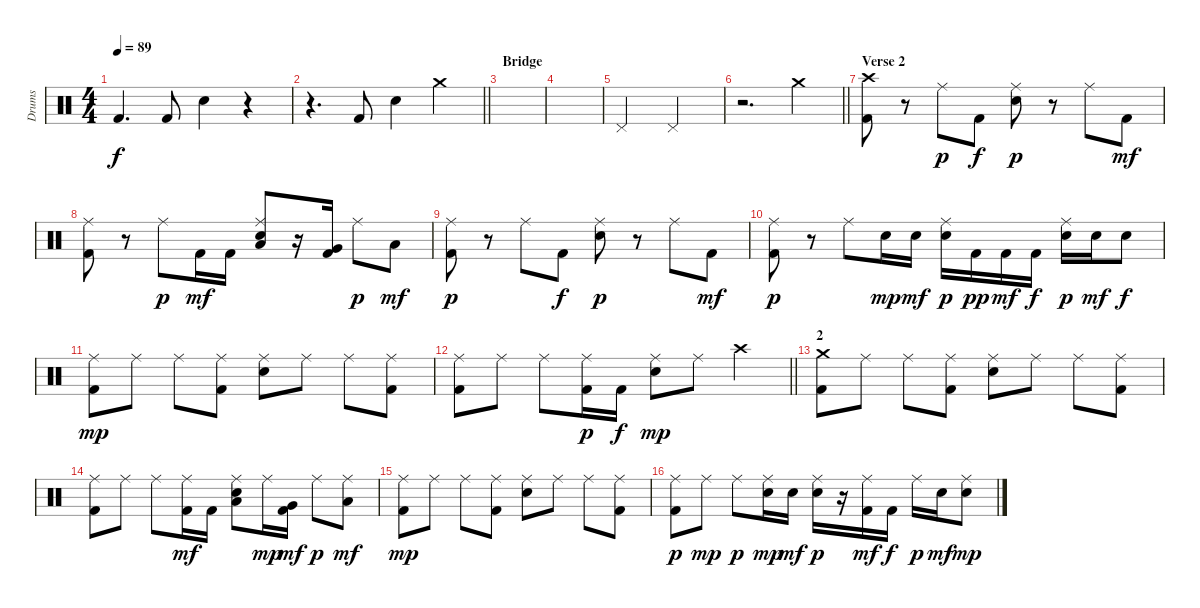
\track ("Drums" "Drums") {instrument percussion}
\staff {score}
\articulation defaults
\ts (4 4)
\tempo 89
\clef neutral
\ks c "Kick (hit) 2".4{d dy f} "Kick (hit) 2".8 "Electric Snare (hit)".4
r.4 |
\barLineRight lightlight
r.4{d} "Kick (hit) 2".8 "Electric Snare (hit)".4 "Crash medium (hit)".4 |
\section ("" "Bridge")
|
|
"Pedal Hi-Hat (hit)".2 "Pedal Hi-Hat (hit)".2 |
\barLineRight lightlight
r.2{d} "Crash medium (hit)".4 |
\section ("" "Verse 2")
("Crash high (hit)" "Kick (hit) 2").8 r.8 "Ride (middle)".8{dy p} "Kick (hit) 2".8{dy f} ("Ride (middle)" "Electric Snare (hit)").8{dy p} r.8 "Ride (middle)".8 "Kick (hit) 2".8{dy mf} |
("Ride (middle)" "Kick (hit) 2").8 r.8 "Ride (middle)".8{dy p} "Kick (hit) 2".16{dy mf} "Kick (hit) 2".16 ("Ride (middle)" "Electric Snare (hit)" "Low Floor Tom (hit)").8 r.16 ("Very Low Tom (hit)" "Kick (hit) 2").16 "Ride (middle)".8{dy p} "Low Floor Tom (hit)".8{dy mf} |
("Ride (middle)" "Kick (hit) 2").8{dy p} r.8 "Ride (middle)".8 "Kick (hit) 2".8{dy f} ("Ride (middle)" "Electric Snare (hit)").8{dy p} r.8 "Ride (middle)".8 "Kick (hit) 2".8{dy mf} |
("Ride (middle)" "Kick (hit) 2").8{dy p} r.8 "Ride (middle)".8 "Electric Snare (hit)".16{dy mp} "Electric Snare (hit)".16{dy mf} ("Ride (middle)" "Electric Snare (hit)").16{dy p} "Kick (hit) 2".16{dy pp} "Kick (hit) 2".16{dy mf} "Kick (hit) 2".16{dy f} ("Ride (middle)" "Electric Snare (hit)").16{dy p} "Electric Snare (hit)".16{dy mf} "Electric Snare (hit)".8{dy f} |
("Ride (middle)" "Kick (hit) 2").8{dy mp} "Ride (middle)".8 "Ride (middle)".8 ("Ride (middle)" "Kick (hit) 2").8 ("Ride (middle)" "Electric Snare (hit)").8 "Ride (middle)".8 "Ride (middle)".8 ("Ride (middle)" "Kick (hit) 2").8 |
\barLineRight lightlight
("Ride (middle)" "Kick (hit) 2").8 "Ride (middle)".8 "Ride (middle)".8 ("Ride (middle)" "Kick (hit) 2").16{dy p} "Kick (hit) 2".16{dy f} ("Ride (middle)" "Electric Snare (hit)").8{dy mp} "Ride (middle)".8 "Crash high (hit)".4 |
\section ("" "2")
("Crash medium (hit)" "Kick (hit) 2").8 "Ride (middle)".8 "Ride (middle)".8 ("Ride (middle)" "Kick (hit) 2").8 ("Ride (middle)" "Electric Snare (hit)").8 "Ride (middle)".8 "Ride (middle)".8 ("Ride (middle)" "Kick (hit) 2").8 |
("Ride (middle)" "Kick (hit) 2").8 "Ride (middle)".8 "Ride (middle)".8 ("Ride (middle)" "Kick (hit) 2").16{dy mf} "Kick (hit) 2".16 ("Ride (middle)" "Electric Snare (hit)" "Low Floor Tom (hit)").8 "Ride (middle)".16{dy mp} ("Very Low Tom (hit)" "Kick (hit) 2").16{dy mf} "Ride (middle)".8{dy p} ("Ride (middle)" "Low Floor Tom (hit)").8{dy mf} |
("Ride (middle)" "Kick (hit) 2").8{dy mp} "Ride (middle)".8 "Ride (middle)".8 ("Ride (middle)" "Kick (hit) 2").8 ("Ride (middle)" "Electric Snare (hit)").8 "Ride (middle)".8 "Ride (middle)".8 ("Ride (middle)" "Kick (hit) 2").8 |
("Ride (middle)" "Kick (hit) 2").8{dy p} "Ride (middle)".8{dy mp} "Ride (middle)".8{dy p} ("Ride (middle)" "Electric Snare (hit)").16{dy mp} "Electric Snare (hit)".16{dy mf} ("Ride (middle)" "Electric Snare (hit)").16{dy p} r.16 ("Ride (middle)" "Kick (hit) 2").16{dy mf} "Kick (hit) 2".16{dy f} "Ride (middle)".16{dy p} "Electric Snare (hit)".16{dy mf} ("Ride (middle)" "Electric Snare (hit)").8{dy mp}
